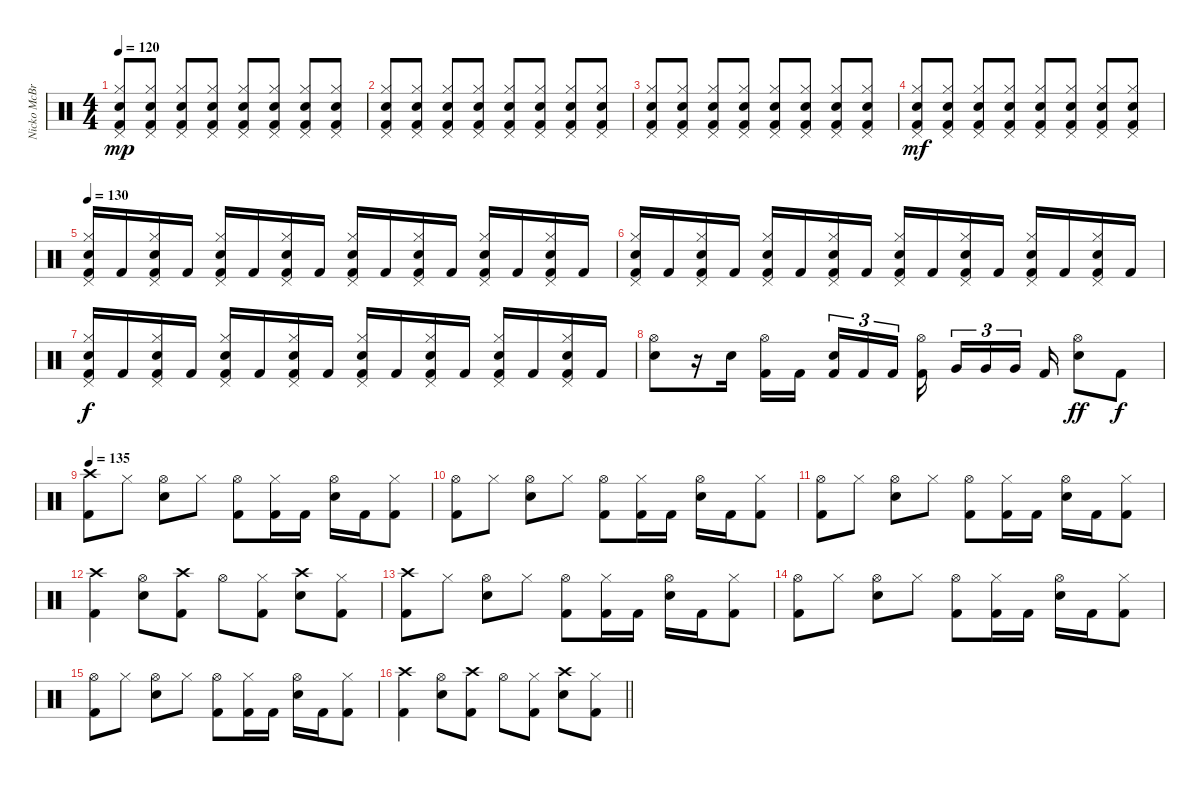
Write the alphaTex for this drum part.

\track ("Nicko McBrain" "Nicko McBr") {instrument percussion}
\staff {score}
\articulation defaults
\ts (4 4)
\tempo 120
\clef neutral
\ks c
("Pedal Hi-Hat (hit)" "Hi-Hat (closed)" "Electric Snare (hit)" "Kick (hit) 2").8{dy mp} ("Pedal Hi-Hat (hit)" "Hi-Hat (closed)" "Electric Snare (hit)" "Kick (hit) 2").8 ("Pedal Hi-Hat (hit)" "Hi-Hat (closed)" "Electric Snare (hit)" "Kick (hit) 2").8 ("Pedal Hi-Hat (hit)" "Hi-Hat (closed)" "Electric Snare (hit)" "Kick (hit) 2").8 ("Pedal Hi-Hat (hit)" "Hi-Hat (closed)" "Electric Snare (hit)" "Kick (hit) 2").8 ("Pedal Hi-Hat (hit)" "Hi-Hat (closed)" "Electric Snare (hit)" "Kick (hit) 2").8 ("Pedal Hi-Hat (hit)" "Hi-Hat (closed)" "Electric Snare (hit)" "Kick (hit) 2").8 ("Pedal Hi-Hat (hit)" "Hi-Hat (closed)" "Electric Snare (hit)" "Kick (hit) 2").8 |
("Pedal Hi-Hat (hit)" "Hi-Hat (closed)" "Electric Snare (hit)" "Kick (hit) 2").8 ("Pedal Hi-Hat (hit)" "Hi-Hat (closed)" "Electric Snare (hit)" "Kick (hit) 2").8 ("Pedal Hi-Hat (hit)" "Hi-Hat (closed)" "Electric Snare (hit)" "Kick (hit) 2").8 ("Pedal Hi-Hat (hit)" "Hi-Hat (closed)" "Electric Snare (hit)" "Kick (hit) 2").8 ("Pedal Hi-Hat (hit)" "Hi-Hat (closed)" "Electric Snare (hit)" "Kick (hit) 2").8 ("Pedal Hi-Hat (hit)" "Hi-Hat (closed)" "Electric Snare (hit)" "Kick (hit) 2").8 ("Pedal Hi-Hat (hit)" "Hi-Hat (closed)" "Electric Snare (hit)" "Kick (hit) 2").8 ("Pedal Hi-Hat (hit)" "Hi-Hat (closed)" "Electric Snare (hit)" "Kick (hit) 2").8 |
("Pedal Hi-Hat (hit)" "Hi-Hat (closed)" "Electric Snare (hit)" "Kick (hit) 2").8 ("Pedal Hi-Hat (hit)" "Hi-Hat (closed)" "Electric Snare (hit)" "Kick (hit) 2").8 ("Pedal Hi-Hat (hit)" "Hi-Hat (closed)" "Electric Snare (hit)" "Kick (hit) 2").8 ("Pedal Hi-Hat (hit)" "Hi-Hat (closed)" "Electric Snare (hit)" "Kick (hit) 2").8 ("Pedal Hi-Hat (hit)" "Hi-Hat (closed)" "Electric Snare (hit)" "Kick (hit) 2").8 ("Pedal Hi-Hat (hit)" "Hi-Hat (closed)" "Electric Snare (hit)" "Kick (hit) 2").8 ("Pedal Hi-Hat (hit)" "Hi-Hat (closed)" "Electric Snare (hit)" "Kick (hit) 2").8 ("Pedal Hi-Hat (hit)" "Hi-Hat (closed)" "Electric Snare (hit)" "Kick (hit) 2").8 |
("Pedal Hi-Hat (hit)" "Hi-Hat (closed)" "Electric Snare (hit)" "Kick (hit) 2").8{dy mf} ("Pedal Hi-Hat (hit)" "Hi-Hat (closed)" "Electric Snare (hit)" "Kick (hit) 2").8 ("Pedal Hi-Hat (hit)" "Hi-Hat (closed)" "Electric Snare (hit)" "Kick (hit) 2").8 ("Pedal Hi-Hat (hit)" "Hi-Hat (closed)" "Electric Snare (hit)" "Kick (hit) 2").8 ("Pedal Hi-Hat (hit)" "Hi-Hat (closed)" "Electric Snare (hit)" "Kick (hit) 2").8 ("Pedal Hi-Hat (hit)" "Hi-Hat (closed)" "Electric Snare (hit)" "Kick (hit) 2").8 ("Pedal Hi-Hat (hit)" "Hi-Hat (closed)" "Electric Snare (hit)" "Kick (hit) 2").8 ("Pedal Hi-Hat (hit)" "Hi-Hat (closed)" "Electric Snare (hit)" "Kick (hit) 2").8 |
\tempo 130
("Pedal Hi-Hat (hit)" "Hi-Hat (closed)" "Electric Snare (hit)" "Kick (hit) 2").16 "Kick (hit) 2".16 ("Pedal Hi-Hat (hit)" "Hi-Hat (closed)" "Electric Snare (hit)" "Kick (hit) 2").16 "Kick (hit) 2".16 ("Pedal Hi-Hat (hit)" "Hi-Hat (closed)" "Electric Snare (hit)" "Kick (hit) 2").16 "Kick (hit) 2".16 ("Pedal Hi-Hat (hit)" "Hi-Hat (closed)" "Electric Snare (hit)" "Kick (hit) 2").16 "Kick (hit) 2".16 ("Pedal Hi-Hat (hit)" "Hi-Hat (closed)" "Electric Snare (hit)" "Kick (hit) 2").16 "Kick (hit) 2".16 ("Pedal Hi-Hat (hit)" "Hi-Hat (closed)" "Electric Snare (hit)" "Kick (hit) 2").16 "Kick (hit) 2".16 ("Pedal Hi-Hat (hit)" "Hi-Hat (closed)" "Electric Snare (hit)" "Kick (hit) 2").16 "Kick (hit) 2".16 ("Pedal Hi-Hat (hit)" "Hi-Hat (closed)" "Electric Snare (hit)" "Kick (hit) 2").16 "Kick (hit) 2".16 |
("Pedal Hi-Hat (hit)" "Hi-Hat (closed)" "Electric Snare (hit)" "Kick (hit) 2").16 "Kick (hit) 2".16 ("Pedal Hi-Hat (hit)" "Hi-Hat (closed)" "Electric Snare (hit)" "Kick (hit) 2").16 "Kick (hit) 2".16 ("Pedal Hi-Hat (hit)" "Hi-Hat (closed)" "Electric Snare (hit)" "Kick (hit) 2").16 "Kick (hit) 2".16 ("Pedal Hi-Hat (hit)" "Hi-Hat (closed)" "Electric Snare (hit)" "Kick (hit) 2").16 "Kick (hit) 2".16 ("Pedal Hi-Hat (hit)" "Hi-Hat (closed)" "Electric Snare (hit)" "Kick (hit) 2").16 "Kick (hit) 2".16 ("Pedal Hi-Hat (hit)" "Hi-Hat (closed)" "Electric Snare (hit)" "Kick (hit) 2").16 "Kick (hit) 2".16 ("Pedal Hi-Hat (hit)" "Hi-Hat (closed)" "Electric Snare (hit)" "Kick (hit) 2").16 "Kick (hit) 2".16 ("Pedal Hi-Hat (hit)" "Hi-Hat (closed)" "Electric Snare (hit)" "Kick (hit) 2").16 "Kick (hit) 2".16 |
("Pedal Hi-Hat (hit)" "Hi-Hat (closed)" "Electric Snare (hit)" "Kick (hit) 2").16{dy f} "Kick (hit) 2".16 ("Pedal Hi-Hat (hit)" "Hi-Hat (closed)" "Electric Snare (hit)" "Kick (hit) 2").16 "Kick (hit) 2".16 ("Pedal Hi-Hat (hit)" "Hi-Hat (closed)" "Electric Snare (hit)" "Kick (hit) 2").16 "Kick (hit) 2".16 ("Pedal Hi-Hat (hit)" "Hi-Hat (closed)" "Electric Snare (hit)" "Kick (hit) 2").16 "Kick (hit) 2".16 ("Pedal Hi-Hat (hit)" "Hi-Hat (closed)" "Electric Snare (hit)" "Kick (hit) 2").16 "Kick (hit) 2".16 ("Pedal Hi-Hat (hit)" "Hi-Hat (closed)" "Electric Snare (hit)" "Kick (hit) 2").16 "Kick (hit) 2".16 ("Pedal Hi-Hat (hit)" "Hi-Hat (closed)" "Electric Snare (hit)" "Kick (hit) 2").16 "Kick (hit) 2".16 ("Pedal Hi-Hat (hit)" "Hi-Hat (closed)" "Electric Snare (hit)" "Kick (hit) 2").16 "Kick (hit) 2".16 |
("Hi-Hat (open)" "Electric Snare (hit)").8 r.16 "Electric Snare (hit)".16 ("Hi-Hat (open)" "Kick (hit) 2").16 "Kick (hit) 2".16{beam splitsecondary} ("Electric Snare (hit)" "Kick (hit) 2").16{tu (3 2)} "Kick (hit) 2".16{tu (3 2)} "Kick (hit) 2".16{tu (3 2)} ("Hi-Hat (open)" "Kick (hit) 2").16{beam splitsecondary} "Very Low Tom (hit)".16{tu (3 2)} "Very Low Tom (hit)".16{tu (3 2)} "Very Low Tom (hit)".16{tu (3 2) beam splitsecondary} "Kick (hit) 2".16 ("Hi-Hat (open)" "Electric Snare (hit)").8{dy ff} "Kick (hit) 2".8{dy f} |
\tempo 135
("Crash high (hit)" "Kick (hit) 2").8 "Hi-Hat (closed)".8 ("Hi-Hat (open)" "Electric Snare (hit)").8 "Hi-Hat (closed)".8 ("Hi-Hat (open)" "Kick (hit) 2").8 ("Hi-Hat (closed)" "Kick (hit) 2").16 "Kick (hit) 2".16 ("Hi-Hat (open)" "Electric Snare (hit)").16 "Kick (hit) 2".16 ("Hi-Hat (closed)" "Kick (hit) 2").8 |
("Hi-Hat (open)" "Kick (hit) 2").8 "Hi-Hat (closed)".8 ("Hi-Hat (open)" "Electric Snare (hit)").8 "Hi-Hat (closed)".8 ("Hi-Hat (open)" "Kick (hit) 2").8 ("Hi-Hat (closed)" "Kick (hit) 2").16 "Kick (hit) 2".16 ("Hi-Hat (open)" "Electric Snare (hit)").16 "Kick (hit) 2".16 ("Hi-Hat (closed)" "Kick (hit) 2").8 |
("Hi-Hat (open)" "Kick (hit) 2").8 "Hi-Hat (closed)".8 ("Hi-Hat (open)" "Electric Snare (hit)").8 "Hi-Hat (closed)".8 ("Hi-Hat (open)" "Kick (hit) 2").8 ("Hi-Hat (closed)" "Kick (hit) 2").16 "Kick (hit) 2".16 ("Hi-Hat (open)" "Electric Snare (hit)").16 "Kick (hit) 2".16 ("Hi-Hat (closed)" "Kick (hit) 2").8 |
("Crash high (hit)" "Kick (hit) 2").4 ("Hi-Hat (open)" "Electric Snare (hit)").8 ("Crash high (hit)" "Kick (hit) 2").8 "Hi-Hat (open)".8 ("Hi-Hat (closed)" "Kick (hit) 2").8 ("Crash high (hit)" "Electric Snare (hit)").8 ("Hi-Hat (closed)" "Kick (hit) 2").8 |
("Crash high (hit)" "Kick (hit) 2").8 "Hi-Hat (closed)".8 ("Hi-Hat (open)" "Electric Snare (hit)").8 "Hi-Hat (closed)".8 ("Hi-Hat (open)" "Kick (hit) 2").8 ("Hi-Hat (closed)" "Kick (hit) 2").16 "Kick (hit) 2".16 ("Hi-Hat (open)" "Electric Snare (hit)").16 "Kick (hit) 2".16 ("Hi-Hat (closed)" "Kick (hit) 2").8 |
("Hi-Hat (open)" "Kick (hit) 2").8 "Hi-Hat (closed)".8 ("Hi-Hat (open)" "Electric Snare (hit)").8 "Hi-Hat (closed)".8 ("Hi-Hat (open)" "Kick (hit) 2").8 ("Hi-Hat (closed)" "Kick (hit) 2").16 "Kick (hit) 2".16 ("Hi-Hat (open)" "Electric Snare (hit)").16 "Kick (hit) 2".16 ("Hi-Hat (closed)" "Kick (hit) 2").8 |
("Hi-Hat (open)" "Kick (hit) 2").8 "Hi-Hat (closed)".8 ("Hi-Hat (open)" "Electric Snare (hit)").8 "Hi-Hat (closed)".8 ("Hi-Hat (open)" "Kick (hit) 2").8 ("Hi-Hat (closed)" "Kick (hit) 2").16 "Kick (hit) 2".16 ("Hi-Hat (open)" "Electric Snare (hit)").16 "Kick (hit) 2".16 ("Hi-Hat (closed)" "Kick (hit) 2").8 |
\barLineRight lightlight
("Crash high (hit)" "Kick (hit) 2").4 ("Hi-Hat (open)" "Electric Snare (hit)").8 ("Crash high (hit)" "Kick (hit) 2").8 "Hi-Hat (open)".8 ("Hi-Hat (closed)" "Kick (hit) 2").8 ("Crash high (hit)" "Electric Snare (hit)").8 ("Hi-Hat (closed)" "Kick (hit) 2").8
